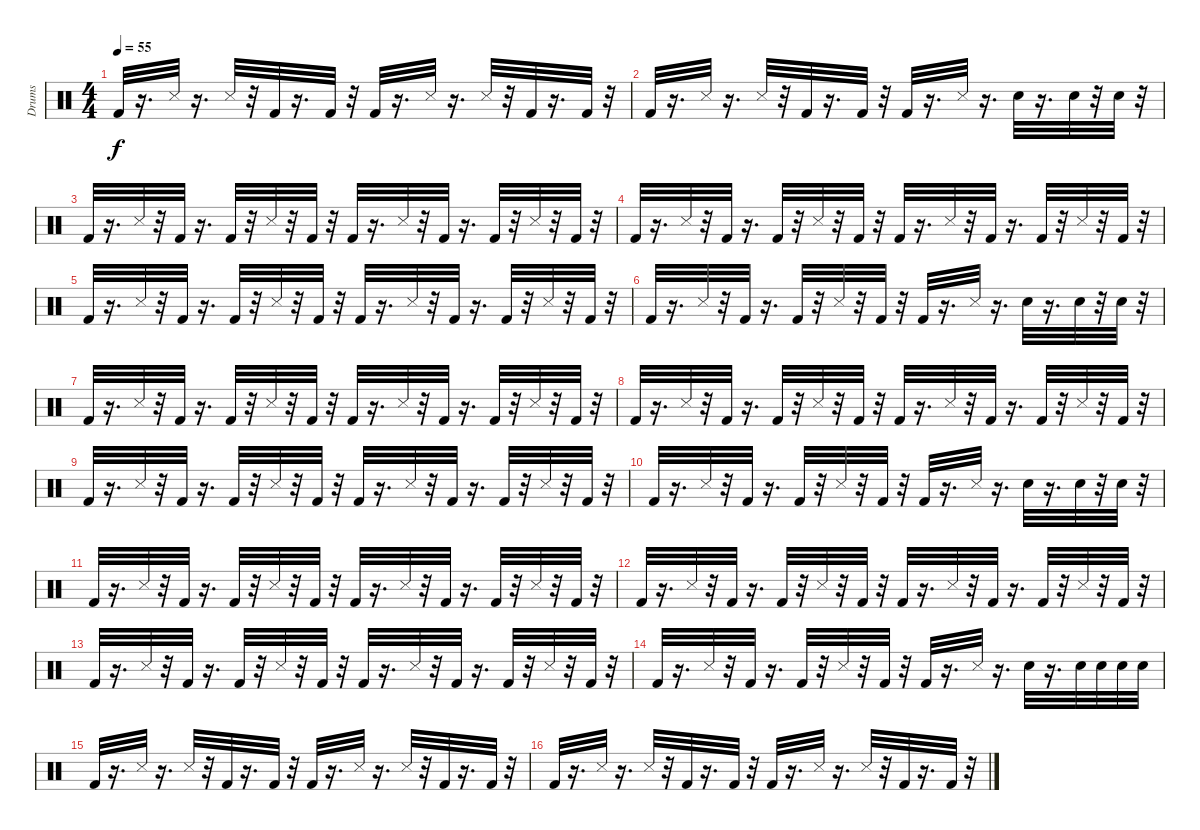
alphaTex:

\track ("Drums               " "Drums     ") {instrument percussion}
\staff {score}
\articulation defaults
\ts (4 4)
\tempo 55
\clef neutral
\ks c "Kick (hit) 2".32{dy f}
r.16{d} "Snare (side stick) 3".32 r.16{d} "Snare (side stick) 3".32 r.32 "Kick (hit) 2".32 r.16{d} "Kick (hit) 2".32 r.32 "Kick (hit) 2".32 r.16{d} "Snare (side stick) 3".32 r.16{d} "Snare (side stick) 3".32 r.32 "Kick (hit) 2".32 r.16{d} "Kick (hit) 2".32 r.32 |
"Kick (hit) 2".32 r.16{d} "Snare (side stick) 3".32 r.16{d} "Snare (side stick) 3".32 r.32 "Kick (hit) 2".32 r.16{d} "Kick (hit) 2".32 r.32 "Kick (hit) 2".32 r.16{d} "Snare (side stick) 3".32 r.16{d} "Snare (hit) 2".32 r.16{d} "Snare (hit) 2".32 r.32 "Snare (hit) 2".32 r.32 |
"Kick (hit) 2".32 r.16{d} "Snare (side stick) 3".32 r.32 "Kick (hit) 2".32 r.16{d} "Kick (hit) 2".32 r.32 "Snare (side stick) 3".32 r.32 "Kick (hit) 2".32 r.32 "Kick (hit) 2".32 r.16{d} "Snare (side stick) 3".32 r.32 "Kick (hit) 2".32 r.16{d} "Kick (hit) 2".32 r.32 "Snare (side stick) 3".32 r.32 "Kick (hit) 2".32 r.32 |
"Kick (hit) 2".32 r.16{d} "Snare (side stick) 3".32 r.32 "Kick (hit) 2".32 r.16{d} "Kick (hit) 2".32 r.32 "Snare (side stick) 3".32 r.32 "Kick (hit) 2".32 r.32 "Kick (hit) 2".32 r.16{d} "Snare (side stick) 3".32 r.32 "Kick (hit) 2".32 r.16{d} "Kick (hit) 2".32 r.32 "Snare (side stick) 3".32 r.32 "Kick (hit) 2".32 r.32 |
"Kick (hit) 2".32 r.16{d} "Snare (side stick) 3".32 r.32 "Kick (hit) 2".32 r.16{d} "Kick (hit) 2".32 r.32 "Snare (side stick) 3".32 r.32 "Kick (hit) 2".32 r.32 "Kick (hit) 2".32 r.16{d} "Snare (side stick) 3".32 r.32 "Kick (hit) 2".32 r.16{d} "Kick (hit) 2".32 r.32 "Snare (side stick) 3".32 r.32 "Kick (hit) 2".32 r.32 |
"Kick (hit) 2".32 r.16{d} "Snare (side stick) 3".32 r.32 "Kick (hit) 2".32 r.16{d} "Kick (hit) 2".32 r.32 "Snare (side stick) 3".32 r.32 "Kick (hit) 2".32 r.32 "Kick (hit) 2".32 r.16{d} "Snare (side stick) 3".32 r.16{d} "Snare (hit) 2".32 r.16{d} "Snare (hit) 2".32 r.32 "Snare (hit) 2".32 r.32 |
"Kick (hit) 2".32 r.16{d} "Snare (side stick) 3".32 r.32 "Kick (hit) 2".32 r.16{d} "Kick (hit) 2".32 r.32 "Snare (side stick) 3".32 r.32 "Kick (hit) 2".32 r.32 "Kick (hit) 2".32 r.16{d} "Snare (side stick) 3".32 r.32 "Kick (hit) 2".32 r.16{d} "Kick (hit) 2".32 r.32 "Snare (side stick) 3".32 r.32 "Kick (hit) 2".32 r.32 |
"Kick (hit) 2".32 r.16{d} "Snare (side stick) 3".32 r.32 "Kick (hit) 2".32 r.16{d} "Kick (hit) 2".32 r.32 "Snare (side stick) 3".32 r.32 "Kick (hit) 2".32 r.32 "Kick (hit) 2".32 r.16{d} "Snare (side stick) 3".32 r.32 "Kick (hit) 2".32 r.16{d} "Kick (hit) 2".32 r.32 "Snare (side stick) 3".32 r.32 "Kick (hit) 2".32 r.32 |
"Kick (hit) 2".32 r.16{d} "Snare (side stick) 3".32 r.32 "Kick (hit) 2".32 r.16{d} "Kick (hit) 2".32 r.32 "Snare (side stick) 3".32 r.32 "Kick (hit) 2".32 r.32 "Kick (hit) 2".32 r.16{d} "Snare (side stick) 3".32 r.32 "Kick (hit) 2".32 r.16{d} "Kick (hit) 2".32 r.32 "Snare (side stick) 3".32 r.32 "Kick (hit) 2".32 r.32 |
"Kick (hit) 2".32 r.16{d} "Snare (side stick) 3".32 r.32 "Kick (hit) 2".32 r.16{d} "Kick (hit) 2".32 r.32 "Snare (side stick) 3".32 r.32 "Kick (hit) 2".32 r.32 "Kick (hit) 2".32 r.16{d} "Snare (side stick) 3".32 r.16{d} "Snare (hit) 2".32 r.16{d} "Snare (hit) 2".32 r.32 "Snare (hit) 2".32 r.32 |
"Kick (hit) 2".32 r.16{d} "Snare (side stick) 3".32 r.32 "Kick (hit) 2".32 r.16{d} "Kick (hit) 2".32 r.32 "Snare (side stick) 3".32 r.32 "Kick (hit) 2".32 r.32 "Kick (hit) 2".32 r.16{d} "Snare (side stick) 3".32 r.32 "Kick (hit) 2".32 r.16{d} "Kick (hit) 2".32 r.32 "Snare (side stick) 3".32 r.32 "Kick (hit) 2".32 r.32 |
"Kick (hit) 2".32 r.16{d} "Snare (side stick) 3".32 r.32 "Kick (hit) 2".32 r.16{d} "Kick (hit) 2".32 r.32 "Snare (side stick) 3".32 r.32 "Kick (hit) 2".32 r.32 "Kick (hit) 2".32 r.16{d} "Snare (side stick) 3".32 r.32 "Kick (hit) 2".32 r.16{d} "Kick (hit) 2".32 r.32 "Snare (side stick) 3".32 r.32 "Kick (hit) 2".32 r.32 |
"Kick (hit) 2".32 r.16{d} "Snare (side stick) 3".32 r.32 "Kick (hit) 2".32 r.16{d} "Kick (hit) 2".32 r.32 "Snare (side stick) 3".32 r.32 "Kick (hit) 2".32 r.32 "Kick (hit) 2".32 r.16{d} "Snare (side stick) 3".32 r.32 "Kick (hit) 2".32 r.16{d} "Kick (hit) 2".32 r.32 "Snare (side stick) 3".32 r.32 "Kick (hit) 2".32 r.32 |
"Kick (hit) 2".32 r.16{d} "Snare (side stick) 3".32 r.32 "Kick (hit) 2".32 r.16{d} "Kick (hit) 2".32 r.32 "Snare (side stick) 3".32 r.32 "Kick (hit) 2".32 r.32 "Kick (hit) 2".32 r.16{d} "Snare (side stick) 3".32 r.16{d} "Snare (hit) 2".32 r.16{d} "Snare (hit) 2".32 "Snare (hit) 2".32 "Snare (hit) 2".32 "Snare (hit) 2".32 |
"Kick (hit) 2".32 r.16{d} "Snare (side stick) 3".32 r.16{d} "Snare (side stick) 3".32 r.32 "Kick (hit) 2".32 r.16{d} "Kick (hit) 2".32 r.32 "Kick (hit) 2".32 r.16{d} "Snare (side stick) 3".32 r.16{d} "Snare (side stick) 3".32 r.32 "Kick (hit) 2".32 r.16{d} "Kick (hit) 2".32 r.32 |
"Kick (hit) 2".32 r.16{d} "Snare (side stick) 3".32 r.16{d} "Snare (side stick) 3".32 r.32 "Kick (hit) 2".32 r.16{d} "Kick (hit) 2".32 r.32 "Kick (hit) 2".32 r.16{d} "Snare (side stick) 3".32 r.16{d} "Snare (side stick) 3".32 r.32 "Kick (hit) 2".32 r.16{d} "Kick (hit) 2".32 r.32
